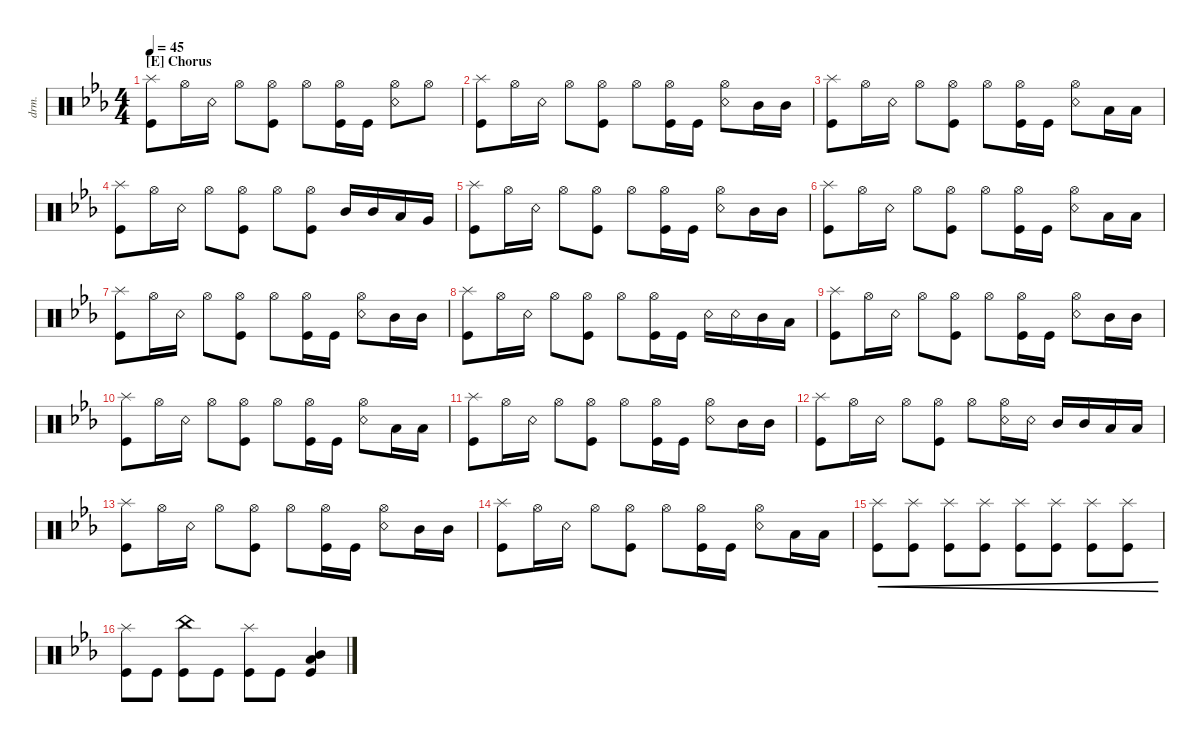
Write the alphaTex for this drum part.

\defaultSystemsLayout 4
\hideDynamics
\bracketExtendMode nobrackets
\otherSystemsTrackNameOrientation horizontal
\track ("Drumkit" "drm.") {instrument percussion}
\staff {score}
\articulation defaults
\ts (4 4)
\section ("E" "Chorus")
\tempo 45
\clef neutral
\ks cminor
("Splash (hit)" "Kick (hit)").8{dy ff} "Hi-Hat (open)".16 "Snare (rim shot)".16 "Hi-Hat (open)".8 ("Hi-Hat (open)" "Kick (hit)").8 "Hi-Hat (open)".8 ("Hi-Hat (open)" "Kick (hit)").16 "Kick (hit)".16 ("Hi-Hat (open)" "Snare (rim shot)").8 "Hi-Hat (open)".8 |
("Splash (hit)" "Kick (hit)").8 "Hi-Hat (open)".16 "Snare (rim shot)".16 "Hi-Hat (open)".8 ("Hi-Hat (open)" "Kick (hit)").8 "Hi-Hat (open)".8 ("Hi-Hat (open)" "Kick (hit)").16 "Kick (hit)".16 ("Hi-Hat (open)" "Snare (rim shot)").8 "Mid Tom (hit)".16 "Mid Tom (hit)".16 |
("Splash (hit)" "Kick (hit)").8 "Hi-Hat (open)".16 "Snare (rim shot)".16 "Hi-Hat (open)".8 ("Hi-Hat (open)" "Kick (hit)").8 "Hi-Hat (open)".8 ("Hi-Hat (open)" "Kick (hit)").16 "Kick (hit)".16 ("Hi-Hat (open)" "Snare (rim shot)").8 "Low Tom (hit)".16 "Low Tom (hit)".16 |
("Splash (hit)" "Kick (hit)").8 "Hi-Hat (open)".16 "Snare (rim shot)".16 "Hi-Hat (open)".8 ("Hi-Hat (open)" "Kick (hit)").8 "Hi-Hat (open)".8 ("Hi-Hat (open)" "Kick (hit)").8 "Mid Tom (hit)".16 "Mid Tom (hit)".16 "Low Tom (hit)".16 "Very Low Tom (hit)".16 |
("Splash (hit)" "Kick (hit)").8 "Hi-Hat (open)".16 "Snare (rim shot)".16 "Hi-Hat (open)".8 ("Hi-Hat (open)" "Kick (hit)").8 "Hi-Hat (open)".8 ("Hi-Hat (open)" "Kick (hit)").16 "Kick (hit)".16 ("Hi-Hat (open)" "Snare (rim shot)").8 "Mid Tom (hit)".16 "Mid Tom (hit)".16 |
("Splash (hit)" "Kick (hit)").8 "Hi-Hat (open)".16 "Snare (rim shot)".16 "Hi-Hat (open)".8 ("Hi-Hat (open)" "Kick (hit)").8 "Hi-Hat (open)".8 ("Hi-Hat (open)" "Kick (hit)").16 "Kick (hit)".16 ("Hi-Hat (open)" "Snare (rim shot)").8 "Low Tom (hit)".16 "Low Tom (hit)".16 |
("Splash (hit)" "Kick (hit)").8 "Hi-Hat (open)".16 "Snare (rim shot)".16 "Hi-Hat (open)".8 ("Hi-Hat (open)" "Kick (hit)").8 "Hi-Hat (open)".8 ("Hi-Hat (open)" "Kick (hit)").16 "Kick (hit)".16 ("Hi-Hat (open)" "Snare (rim shot)").8 "Mid Tom (hit)".16 "Mid Tom (hit)".16 |
("Splash (hit)" "Kick (hit)").8 "Hi-Hat (open)".16 "Snare (rim shot)".16 "Hi-Hat (open)".8 ("Hi-Hat (open)" "Kick (hit)").8 "Hi-Hat (open)".8 ("Hi-Hat (open)" "Kick (hit)").16 "Kick (hit)".16 "Snare (rim shot)".16 "Snare (rim shot)".16 "Mid Tom (hit)".16 "Low Tom (hit)".16 |
("Splash (hit)" "Kick (hit)").8 "Hi-Hat (open)".16 "Snare (rim shot)".16 "Hi-Hat (open)".8 ("Hi-Hat (open)" "Kick (hit)").8 "Hi-Hat (open)".8 ("Hi-Hat (open)" "Kick (hit)").16 "Kick (hit)".16 ("Hi-Hat (open)" "Snare (rim shot)").8 "Mid Tom (hit)".16 "Mid Tom (hit)".16 |
("Splash (hit)" "Kick (hit)").8 "Hi-Hat (open)".16 "Snare (rim shot)".16 "Hi-Hat (open)".8 ("Hi-Hat (open)" "Kick (hit)").8 "Hi-Hat (open)".8 ("Hi-Hat (open)" "Kick (hit)").16 "Kick (hit)".16 ("Hi-Hat (open)" "Snare (rim shot)").8 "Low Tom (hit)".16 "Low Tom (hit)".16 |
("Splash (hit)" "Kick (hit)").8 "Hi-Hat (open)".16 "Snare (rim shot)".16 "Hi-Hat (open)".8 ("Hi-Hat (open)" "Kick (hit)").8 "Hi-Hat (open)".8 ("Hi-Hat (open)" "Kick (hit)").16 "Kick (hit)".16 ("Hi-Hat (open)" "Snare (rim shot)").8 "Mid Tom (hit)".16 "Mid Tom (hit)".16 |
("Splash (hit)" "Kick (hit)").8 "Hi-Hat (open)".16 "Snare (rim shot)".16 "Hi-Hat (open)".8 ("Hi-Hat (open)" "Kick (hit)").8 "Hi-Hat (open)".8 ("Hi-Hat (open)" "Snare (rim shot)").16 "Snare (rim shot)".16 "Mid Tom (hit)".16 "Mid Tom (hit)".16 "Low Tom (hit)".16 "Low Tom (hit)".16 |
("Splash (hit)" "Kick (hit)").8 "Hi-Hat (open)".16 "Snare (rim shot)".16 "Hi-Hat (open)".8 ("Hi-Hat (open)" "Kick (hit)").8 "Hi-Hat (open)".8 ("Hi-Hat (open)" "Kick (hit)").16 "Kick (hit)".16 ("Hi-Hat (open)" "Snare (rim shot)").8 "Mid Tom (hit)".16 "Mid Tom (hit)".16 |
("Splash (hit)" "Kick (hit)").8 "Hi-Hat (open)".16 "Snare (rim shot)".16 "Hi-Hat (open)".8 ("Hi-Hat (open)" "Kick (hit)").8 "Hi-Hat (open)".8 ("Hi-Hat (open)" "Kick (hit)").16 "Kick (hit)".16 ("Hi-Hat (open)" "Snare (rim shot)").8 "Low Tom (hit)".16 "Low Tom (hit)".16 |
("Kick (hit)" "Splash (hit)").8{cre dy mf} ("Kick (hit)" "Splash (hit)").8{cre} ("Kick (hit)" "Splash (hit)").8{cre} ("Kick (hit)" "Splash (hit)").8{cre} ("Kick (hit)" "Splash (hit)").8{cre dy f} ("Kick (hit)" "Splash (hit)").8{cre} ("Kick (hit)" "Splash (hit)").8{cre dy ff} ("Kick (hit)" "Splash (hit)").8{cre} |
("Kick (hit)" "Splash (hit)").8{dy f} "Kick (hit)".8 ("Kick (hit)" "China (hit)").8 "Kick (hit)".8 ("Kick (hit)" "Splash (hit)").8 "Kick (hit)".8 ("Kick (hit)" "Mid Tom (hit)" "Low Tom (hit)").4
